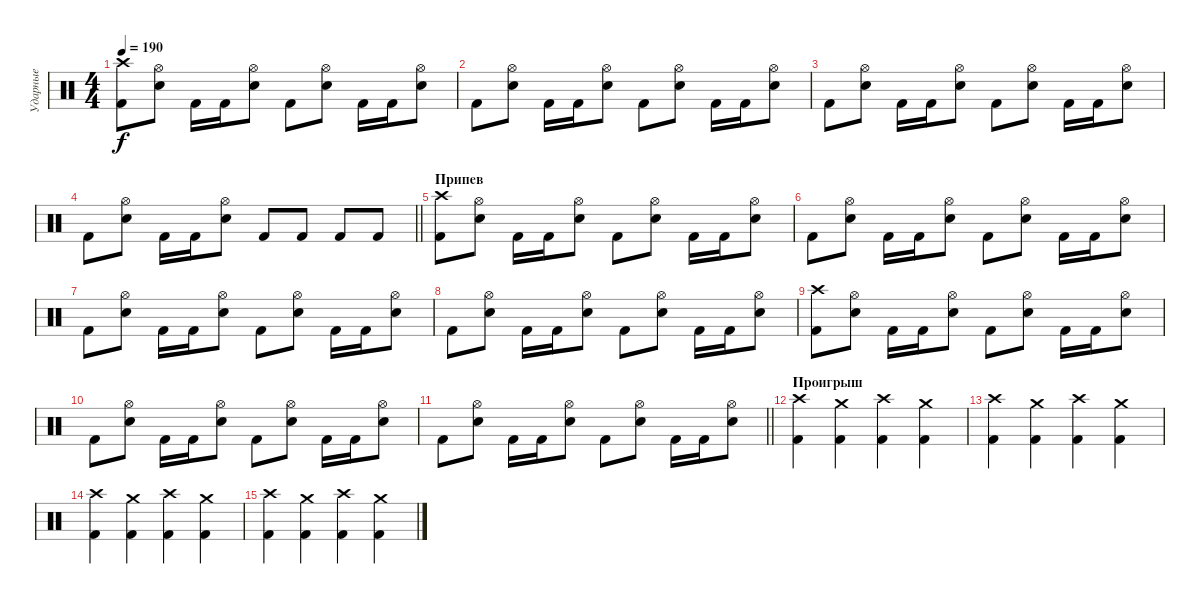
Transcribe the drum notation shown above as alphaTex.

\track ("Ударные" "Ударные") {instrument percussion}
\staff {score}
\articulation defaults
\ts (4 4)
\tempo 190
\clef neutral
\ks c
("Crash high (hit)" "Kick (hit) 2").8{dy f} ("Hi-Hat (open)" "Electric Snare (hit)").8 "Kick (hit) 2".16 "Kick (hit) 2".16 ("Hi-Hat (open)" "Electric Snare (hit)").8 "Kick (hit) 2".8 ("Hi-Hat (open)" "Electric Snare (hit)").8 "Kick (hit) 2".16 "Kick (hit) 2".16 ("Hi-Hat (open)" "Electric Snare (hit)").8 |
"Kick (hit) 2".8 ("Hi-Hat (open)" "Electric Snare (hit)").8 "Kick (hit) 2".16 "Kick (hit) 2".16 ("Hi-Hat (open)" "Electric Snare (hit)").8 "Kick (hit) 2".8 ("Hi-Hat (open)" "Electric Snare (hit)").8 "Kick (hit) 2".16 "Kick (hit) 2".16 ("Hi-Hat (open)" "Electric Snare (hit)").8 |
"Kick (hit) 2".8 ("Hi-Hat (open)" "Electric Snare (hit)").8 "Kick (hit) 2".16 "Kick (hit) 2".16 ("Hi-Hat (open)" "Electric Snare (hit)").8 "Kick (hit) 2".8 ("Hi-Hat (open)" "Electric Snare (hit)").8 "Kick (hit) 2".16 "Kick (hit) 2".16 ("Hi-Hat (open)" "Electric Snare (hit)").8 |
\barLineRight lightlight "Kick (hit) 2".8
("Hi-Hat (open)" "Electric Snare (hit)").8 "Kick (hit) 2".16 "Kick (hit) 2".16 ("Hi-Hat (open)" "Electric Snare (hit)").8 "Kick (hit) 2".8 "Kick (hit) 2".8 "Kick (hit) 2".8 "Kick (hit) 2".8 |
\section ("" "Припев")
("Crash high (hit)" "Kick (hit) 2").8 ("Hi-Hat (open)" "Electric Snare (hit)").8 "Kick (hit) 2".16 "Kick (hit) 2".16 ("Hi-Hat (open)" "Electric Snare (hit)").8 "Kick (hit) 2".8 ("Hi-Hat (open)" "Electric Snare (hit)").8 "Kick (hit) 2".16 "Kick (hit) 2".16 ("Hi-Hat (open)" "Electric Snare (hit)").8 |
"Kick (hit) 2".8 ("Hi-Hat (open)" "Electric Snare (hit)").8 "Kick (hit) 2".16 "Kick (hit) 2".16 ("Hi-Hat (open)" "Electric Snare (hit)").8 "Kick (hit) 2".8 ("Hi-Hat (open)" "Electric Snare (hit)").8 "Kick (hit) 2".16 "Kick (hit) 2".16 ("Hi-Hat (open)" "Electric Snare (hit)").8 |
"Kick (hit) 2".8 ("Hi-Hat (open)" "Electric Snare (hit)").8 "Kick (hit) 2".16 "Kick (hit) 2".16 ("Hi-Hat (open)" "Electric Snare (hit)").8 "Kick (hit) 2".8 ("Hi-Hat (open)" "Electric Snare (hit)").8 "Kick (hit) 2".16 "Kick (hit) 2".16 ("Hi-Hat (open)" "Electric Snare (hit)").8 |
"Kick (hit) 2".8 ("Hi-Hat (open)" "Electric Snare (hit)").8 "Kick (hit) 2".16 "Kick (hit) 2".16 ("Hi-Hat (open)" "Electric Snare (hit)").8 "Kick (hit) 2".8 ("Hi-Hat (open)" "Electric Snare (hit)").8 "Kick (hit) 2".16 "Kick (hit) 2".16 ("Hi-Hat (open)" "Electric Snare (hit)").8 |
("Crash high (hit)" "Kick (hit) 2").8 ("Hi-Hat (open)" "Electric Snare (hit)").8 "Kick (hit) 2".16 "Kick (hit) 2".16 ("Hi-Hat (open)" "Electric Snare (hit)").8 "Kick (hit) 2".8 ("Hi-Hat (open)" "Electric Snare (hit)").8 "Kick (hit) 2".16 "Kick (hit) 2".16 ("Hi-Hat (open)" "Electric Snare (hit)").8 |
"Kick (hit) 2".8 ("Hi-Hat (open)" "Electric Snare (hit)").8 "Kick (hit) 2".16 "Kick (hit) 2".16 ("Hi-Hat (open)" "Electric Snare (hit)").8 "Kick (hit) 2".8 ("Hi-Hat (open)" "Electric Snare (hit)").8 "Kick (hit) 2".16 "Kick (hit) 2".16 ("Hi-Hat (open)" "Electric Snare (hit)").8 |
\barLineRight lightlight "Kick (hit) 2".8
("Hi-Hat (open)" "Electric Snare (hit)").8 "Kick (hit) 2".16 "Kick (hit) 2".16 ("Hi-Hat (open)" "Electric Snare (hit)").8 "Kick (hit) 2".8 ("Hi-Hat (open)" "Electric Snare (hit)").8 "Kick (hit) 2".16 "Kick (hit) 2".16 ("Hi-Hat (open)" "Electric Snare (hit)").8 |
\section ("" "Проигрыш")
("Crash high (hit)" "Kick (hit) 2").4 ("Crash medium (hit)" "Kick (hit) 2").4 ("Crash high (hit)" "Kick (hit) 2").4 ("Crash medium (hit)" "Kick (hit) 2").4 |
("Crash high (hit)" "Kick (hit) 2").4 ("Crash medium (hit)" "Kick (hit) 2").4 ("Crash high (hit)" "Kick (hit) 2").4 ("Crash medium (hit)" "Kick (hit) 2").4 |
("Crash high (hit)" "Kick (hit) 2").4 ("Crash medium (hit)" "Kick (hit) 2").4 ("Crash high (hit)" "Kick (hit) 2").4 ("Crash medium (hit)" "Kick (hit) 2").4 |
("Crash high (hit)" "Kick (hit) 2").4 ("Crash medium (hit)" "Kick (hit) 2").4 ("Crash high (hit)" "Kick (hit) 2").4 ("Crash medium (hit)" "Kick (hit) 2").4
